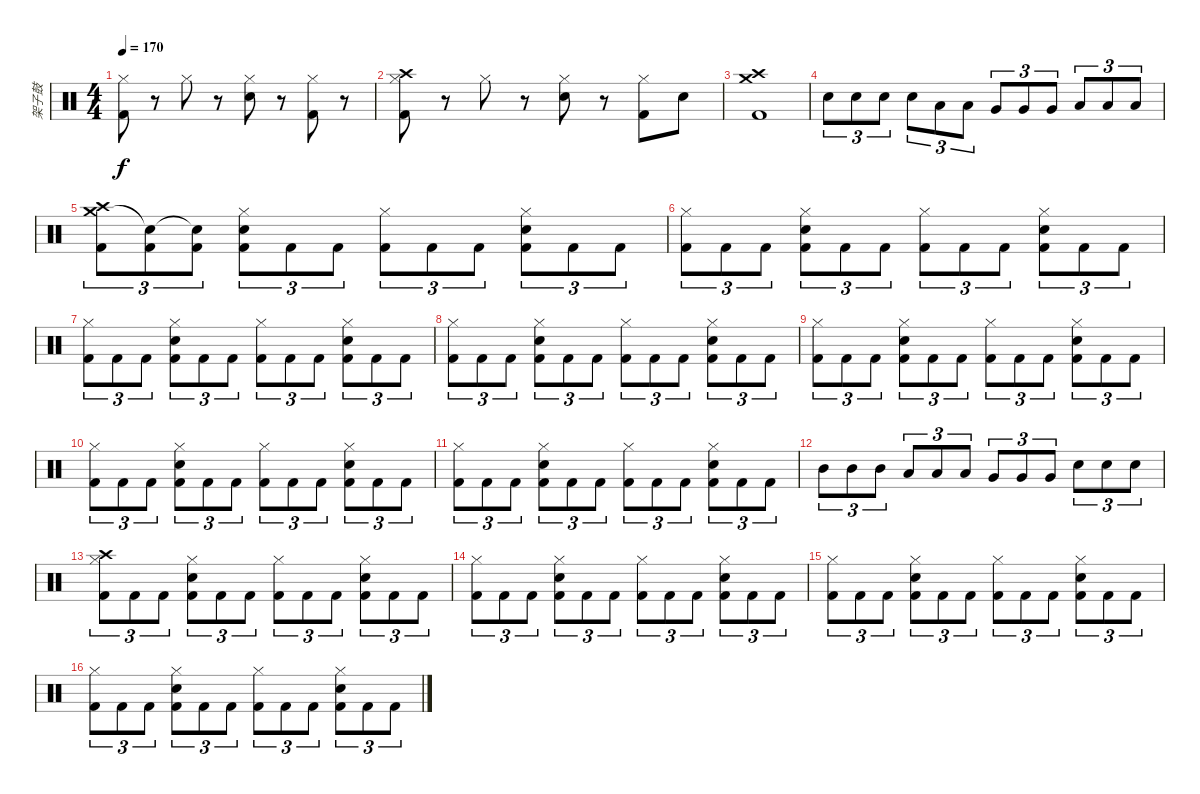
\track ("架子鼓" "架子鼓") {instrument percussion}
\staff {score}
\articulation defaults
\ts (4 4)
\tempo 170
\clef neutral
\ks c
("Hi-Hat (closed)" "Kick (hit) 2").8{dy f} r.8 "Hi-Hat (closed)".8 r.8 ("Hi-Hat (closed)" "Snare (hit) 2").8 r.8 ("Hi-Hat (closed)" "Kick (hit) 2").8 r.8 |
("Hi-Hat (closed)" "Kick (hit) 2" "Crash high (hit)").8 r.8 "Hi-Hat (closed)".8 r.8 ("Hi-Hat (closed)" "Snare (hit) 2").8 r.8 ("Hi-Hat (closed)" "Kick (hit) 2").8 "Snare (hit) 2".8 |
("Kick (hit) 2" "Crash medium (hit)" "Crash high (hit)").1 |
"Snare (hit) 2".8{tu (3 2)} "Snare (hit) 2".8{tu (3 2)} "Snare (hit) 2".8{tu (3 2)} "Snare (hit) 2".8{tu (3 2)} "Low Tom (hit)".8{tu (3 2)} "Low Tom (hit)".8{tu (3 2)} "Very Low Tom (hit)".8{tu (3 2)} "Very Low Tom (hit)".8{tu (3 2)} "Very Low Tom (hit)".8{tu (3 2)} "Low Floor Tom (hit)".8{tu (3 2)} "Low Floor Tom (hit)".8{tu (3 2)} "Low Floor Tom (hit)".8{tu (3 2)} |
("Crash medium (hit)" "Kick (hit) 2" "Crash high (hit)").8{tu (3 2)} ("Snare (hit)"{t} "Kick (hit) 2").8{tu (3 2)} ("Snare (hit)"{t} "Kick (hit) 2").8{tu (3 2)} ("Hi-Hat (closed)" "Snare (hit) 2" "Kick (hit) 2").8{tu (3 2)} "Kick (hit) 2".8{tu (3 2)} "Kick (hit) 2".8{tu (3 2)} ("Hi-Hat (closed)" "Kick (hit) 2").8{tu (3 2)} "Kick (hit) 2".8{tu (3 2)} "Kick (hit) 2".8{tu (3 2)} ("Hi-Hat (closed)" "Snare (hit) 2" "Kick (hit) 2").8{tu (3 2)} "Kick (hit) 2".8{tu (3 2)} "Kick (hit) 2".8{tu (3 2)} |
("Hi-Hat (closed)" "Kick (hit) 2").8{tu (3 2)} "Kick (hit) 2".8{tu (3 2)} "Kick (hit) 2".8{tu (3 2)} ("Hi-Hat (closed)" "Snare (hit) 2" "Kick (hit) 2").8{tu (3 2)} "Kick (hit) 2".8{tu (3 2)} "Kick (hit) 2".8{tu (3 2)} ("Hi-Hat (closed)" "Kick (hit) 2").8{tu (3 2)} "Kick (hit) 2".8{tu (3 2)} "Kick (hit) 2".8{tu (3 2)} ("Hi-Hat (closed)" "Snare (hit) 2" "Kick (hit) 2").8{tu (3 2)} "Kick (hit) 2".8{tu (3 2)} "Kick (hit) 2".8{tu (3 2)} |
("Hi-Hat (closed)" "Kick (hit) 2").8{tu (3 2)} "Kick (hit) 2".8{tu (3 2)} "Kick (hit) 2".8{tu (3 2)} ("Hi-Hat (closed)" "Snare (hit) 2" "Kick (hit) 2").8{tu (3 2)} "Kick (hit) 2".8{tu (3 2)} "Kick (hit) 2".8{tu (3 2)} ("Hi-Hat (closed)" "Kick (hit) 2").8{tu (3 2)} "Kick (hit) 2".8{tu (3 2)} "Kick (hit) 2".8{tu (3 2)} ("Hi-Hat (closed)" "Snare (hit) 2" "Kick (hit) 2").8{tu (3 2)} "Kick (hit) 2".8{tu (3 2)} "Kick (hit) 2".8{tu (3 2)} |
("Hi-Hat (closed)" "Kick (hit) 2").8{tu (3 2)} "Kick (hit) 2".8{tu (3 2)} "Kick (hit) 2".8{tu (3 2)} ("Hi-Hat (closed)" "Snare (hit) 2" "Kick (hit) 2").8{tu (3 2)} "Kick (hit) 2".8{tu (3 2)} "Kick (hit) 2".8{tu (3 2)} ("Hi-Hat (closed)" "Kick (hit) 2").8{tu (3 2)} "Kick (hit) 2".8{tu (3 2)} "Kick (hit) 2".8{tu (3 2)} ("Hi-Hat (closed)" "Snare (hit) 2" "Kick (hit) 2").8{tu (3 2)} "Kick (hit) 2".8{tu (3 2)} "Kick (hit) 2".8{tu (3 2)} |
("Hi-Hat (closed)" "Kick (hit) 2").8{tu (3 2)} "Kick (hit) 2".8{tu (3 2)} "Kick (hit) 2".8{tu (3 2)} ("Hi-Hat (closed)" "Snare (hit) 2" "Kick (hit) 2").8{tu (3 2)} "Kick (hit) 2".8{tu (3 2)} "Kick (hit) 2".8{tu (3 2)} ("Hi-Hat (closed)" "Kick (hit) 2").8{tu (3 2)} "Kick (hit) 2".8{tu (3 2)} "Kick (hit) 2".8{tu (3 2)} ("Hi-Hat (closed)" "Snare (hit) 2" "Kick (hit) 2").8{tu (3 2)} "Kick (hit) 2".8{tu (3 2)} "Kick (hit) 2".8{tu (3 2)} |
("Hi-Hat (closed)" "Kick (hit) 2").8{tu (3 2)} "Kick (hit) 2".8{tu (3 2)} "Kick (hit) 2".8{tu (3 2)} ("Hi-Hat (closed)" "Snare (hit) 2" "Kick (hit) 2").8{tu (3 2)} "Kick (hit) 2".8{tu (3 2)} "Kick (hit) 2".8{tu (3 2)} ("Hi-Hat (closed)" "Kick (hit) 2").8{tu (3 2)} "Kick (hit) 2".8{tu (3 2)} "Kick (hit) 2".8{tu (3 2)} ("Hi-Hat (closed)" "Snare (hit) 2" "Kick (hit) 2").8{tu (3 2)} "Kick (hit) 2".8{tu (3 2)} "Kick (hit) 2".8{tu (3 2)} |
("Hi-Hat (closed)" "Kick (hit) 2").8{tu (3 2)} "Kick (hit) 2".8{tu (3 2)} "Kick (hit) 2".8{tu (3 2)} ("Hi-Hat (closed)" "Snare (hit) 2" "Kick (hit) 2").8{tu (3 2)} "Kick (hit) 2".8{tu (3 2)} "Kick (hit) 2".8{tu (3 2)} ("Hi-Hat (closed)" "Kick (hit) 2").8{tu (3 2)} "Kick (hit) 2".8{tu (3 2)} "Kick (hit) 2".8{tu (3 2)} ("Hi-Hat (closed)" "Snare (hit) 2" "Kick (hit) 2").8{tu (3 2)} "Kick (hit) 2".8{tu (3 2)} "Kick (hit) 2".8{tu (3 2)} |
"Mid Tom (hit)".8{tu (3 2)} "Mid Tom (hit)".8{tu (3 2)} "Mid Tom (hit)".8{tu (3 2)} "Low Tom (hit)".8{tu (3 2)} "Low Tom (hit)".8{tu (3 2)} "Low Tom (hit)".8{tu (3 2)} "Very Low Tom (hit)".8{tu (3 2)} "Very Low Tom (hit)".8{tu (3 2)} "Very Low Tom (hit)".8{tu (3 2)} "Snare (hit) 2".8{tu (3 2)} "Snare (hit) 2".8{tu (3 2)} "Snare (hit) 2".8{tu (3 2)} |
("Hi-Hat (closed)" "Kick (hit) 2" "Crash high (hit)").8{tu (3 2)} "Kick (hit) 2".8{tu (3 2)} "Kick (hit) 2".8{tu (3 2)} ("Hi-Hat (closed)" "Snare (hit) 2" "Kick (hit) 2").8{tu (3 2)} "Kick (hit) 2".8{tu (3 2)} "Kick (hit) 2".8{tu (3 2)} ("Hi-Hat (closed)" "Kick (hit) 2").8{tu (3 2)} "Kick (hit) 2".8{tu (3 2)} "Kick (hit) 2".8{tu (3 2)} ("Hi-Hat (closed)" "Snare (hit) 2" "Kick (hit) 2").8{tu (3 2)} "Kick (hit) 2".8{tu (3 2)} "Kick (hit) 2".8{tu (3 2)} |
("Hi-Hat (closed)" "Kick (hit) 2").8{tu (3 2)} "Kick (hit) 2".8{tu (3 2)} "Kick (hit) 2".8{tu (3 2)} ("Hi-Hat (closed)" "Snare (hit) 2" "Kick (hit) 2").8{tu (3 2)} "Kick (hit) 2".8{tu (3 2)} "Kick (hit) 2".8{tu (3 2)} ("Hi-Hat (closed)" "Kick (hit) 2").8{tu (3 2)} "Kick (hit) 2".8{tu (3 2)} "Kick (hit) 2".8{tu (3 2)} ("Hi-Hat (closed)" "Snare (hit) 2" "Kick (hit) 2").8{tu (3 2)} "Kick (hit) 2".8{tu (3 2)} "Kick (hit) 2".8{tu (3 2)} |
("Hi-Hat (closed)" "Kick (hit) 2").8{tu (3 2)} "Kick (hit) 2".8{tu (3 2)} "Kick (hit) 2".8{tu (3 2)} ("Hi-Hat (closed)" "Snare (hit) 2" "Kick (hit) 2").8{tu (3 2)} "Kick (hit) 2".8{tu (3 2)} "Kick (hit) 2".8{tu (3 2)} ("Hi-Hat (closed)" "Kick (hit) 2").8{tu (3 2)} "Kick (hit) 2".8{tu (3 2)} "Kick (hit) 2".8{tu (3 2)} ("Hi-Hat (closed)" "Snare (hit) 2" "Kick (hit) 2").8{tu (3 2)} "Kick (hit) 2".8{tu (3 2)} "Kick (hit) 2".8{tu (3 2)} |
("Hi-Hat (closed)" "Kick (hit) 2").8{tu (3 2)} "Kick (hit) 2".8{tu (3 2)} "Kick (hit) 2".8{tu (3 2)} ("Hi-Hat (closed)" "Snare (hit) 2" "Kick (hit) 2").8{tu (3 2)} "Kick (hit) 2".8{tu (3 2)} "Kick (hit) 2".8{tu (3 2)} ("Hi-Hat (closed)" "Kick (hit) 2").8{tu (3 2)} "Kick (hit) 2".8{tu (3 2)} "Kick (hit) 2".8{tu (3 2)} ("Hi-Hat (closed)" "Snare (hit) 2" "Kick (hit) 2").8{tu (3 2)} "Kick (hit) 2".8{tu (3 2)} "Kick (hit) 2".8{tu (3 2)}
